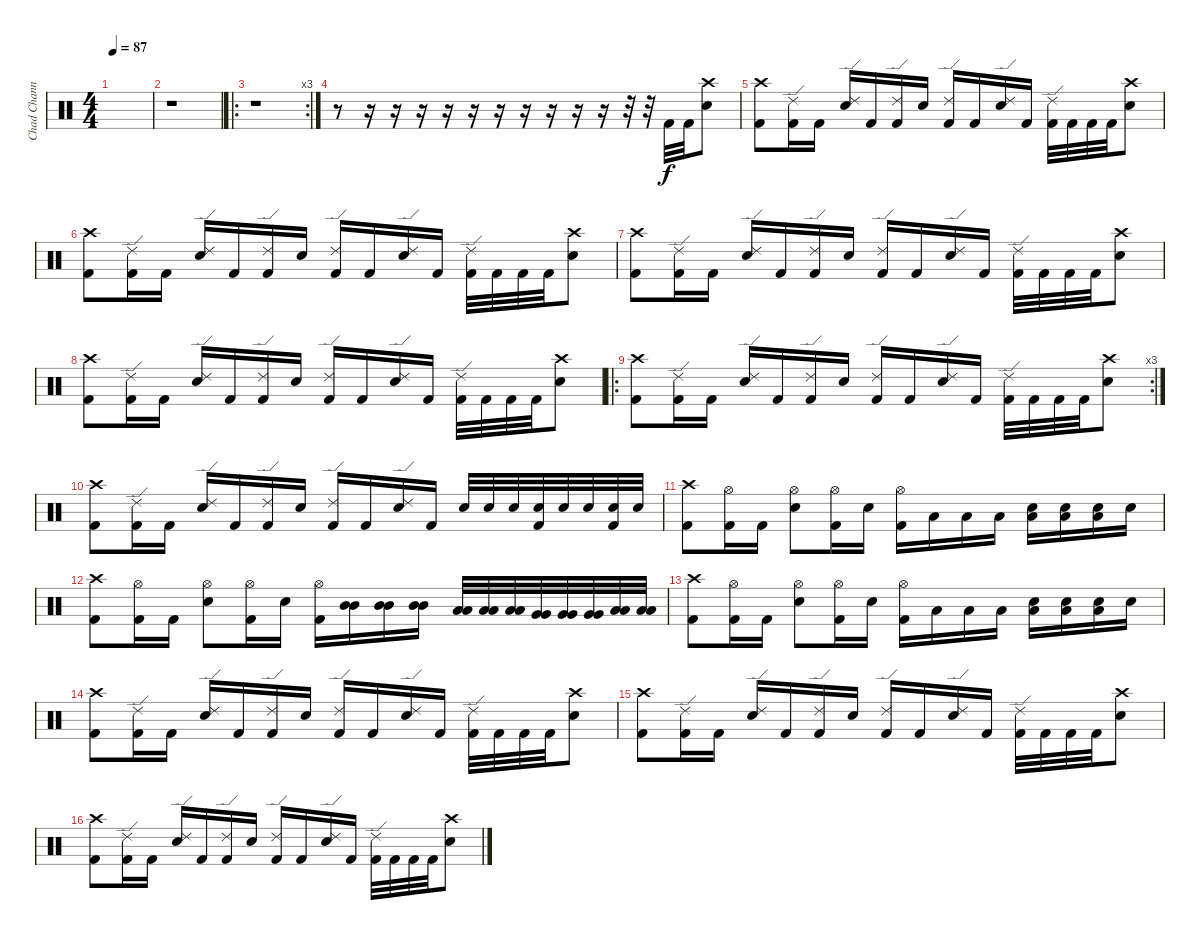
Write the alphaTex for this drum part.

\track ("Chad Channing" "Chad Chann") {instrument percussion}
\staff {score}
\articulation defaults
\ts (4 4)
\tempo 87
\clef neutral
\ks c
|
r.1 |
\ro
\rc 3
r.1 |
r.8 r.16 r.16 r.16 r.16 r.16 r.16 r.16 r.16 r.16 r.16 r.32 r.32 "Kick (hit) 2".32 "Kick (hit) 2".32 ("Crash high (hit)" "Snare (hit) 2").8 |
("Crash high (hit)" "Kick (hit) 2").8 ("Ride (edge) 2" "Kick (hit) 2").16 "Kick (hit) 2".16 ("Ride (edge) 2" "Snare (hit) 2").16 "Kick (hit) 2".16 ("Ride (edge) 2" "Kick (hit) 2").16 "Snare (hit) 2".16 ("Ride (edge) 2" "Kick (hit) 2").16 "Kick (hit) 2".16 ("Ride (edge) 2" "Snare (hit) 2").16 "Kick (hit) 2".16 ("Ride (edge) 2" "Kick (hit) 2").32 "Kick (hit) 2".32 "Kick (hit) 2".32 "Kick (hit) 2".32 ("Crash high (hit)" "Snare (hit) 2").8 |
("Crash high (hit)" "Kick (hit) 2").8 ("Ride (edge) 2" "Kick (hit) 2").16 "Kick (hit) 2".16 ("Ride (edge) 2" "Snare (hit) 2").16 "Kick (hit) 2".16 ("Ride (edge) 2" "Kick (hit) 2").16 "Snare (hit) 2".16 ("Ride (edge) 2" "Kick (hit) 2").16 "Kick (hit) 2".16 ("Ride (edge) 2" "Snare (hit) 2").16 "Kick (hit) 2".16 ("Ride (edge) 2" "Kick (hit) 2").32 "Kick (hit) 2".32 "Kick (hit) 2".32 "Kick (hit) 2".32 ("Crash high (hit)" "Snare (hit) 2").8 |
("Crash high (hit)" "Kick (hit) 2").8 ("Ride (edge) 2" "Kick (hit) 2").16 "Kick (hit) 2".16 ("Ride (edge) 2" "Snare (hit) 2").16 "Kick (hit) 2".16 ("Ride (edge) 2" "Kick (hit) 2").16 "Snare (hit) 2".16 ("Ride (edge) 2" "Kick (hit) 2").16 "Kick (hit) 2".16 ("Ride (edge) 2" "Snare (hit) 2").16 "Kick (hit) 2".16 ("Ride (edge) 2" "Kick (hit) 2").32 "Kick (hit) 2".32 "Kick (hit) 2".32 "Kick (hit) 2".32 ("Crash high (hit)" "Snare (hit) 2").8 |
("Crash high (hit)" "Kick (hit) 2").8 ("Ride (edge) 2" "Kick (hit) 2").16 "Kick (hit) 2".16 ("Ride (edge) 2" "Snare (hit) 2").16 "Kick (hit) 2".16 ("Ride (edge) 2" "Kick (hit) 2").16 "Snare (hit) 2".16 ("Ride (edge) 2" "Kick (hit) 2").16 "Kick (hit) 2".16 ("Ride (edge) 2" "Snare (hit) 2").16 "Kick (hit) 2".16 ("Ride (edge) 2" "Kick (hit) 2").32 "Kick (hit) 2".32 "Kick (hit) 2".32 "Kick (hit) 2".32 ("Crash high (hit)" "Snare (hit) 2").8 |
\ro
\rc 3
("Crash high (hit)" "Kick (hit) 2").8 ("Ride (edge) 2" "Kick (hit) 2").16 "Kick (hit) 2".16 ("Ride (edge) 2" "Snare (hit) 2").16 "Kick (hit) 2".16 ("Ride (edge) 2" "Kick (hit) 2").16 "Snare (hit) 2".16 ("Ride (edge) 2" "Kick (hit) 2").16 "Kick (hit) 2".16 ("Ride (edge) 2" "Snare (hit) 2").16 "Kick (hit) 2".16 ("Ride (edge) 2" "Kick (hit) 2").32 "Kick (hit) 2".32 "Kick (hit) 2".32 "Kick (hit) 2".32 ("Crash high (hit)" "Snare (hit) 2").8 |
("Crash high (hit)" "Kick (hit) 2").8 ("Ride (edge) 2" "Kick (hit) 2").16 "Kick (hit) 2".16 ("Ride (edge) 2" "Snare (hit) 2").16 "Kick (hit) 2".16 ("Ride (edge) 2" "Kick (hit) 2").16 "Snare (hit) 2".16 ("Ride (edge) 2" "Kick (hit) 2").16 "Kick (hit) 2".16 ("Ride (edge) 2" "Snare (hit) 2").16 "Kick (hit) 2".16 "Snare (hit) 2".32 "Snare (hit) 2".32 "Snare (hit) 2".32 ("Snare (hit) 2" "Kick (hit) 2").32 "Snare (hit) 2".32 "Snare (hit) 2".32 ("Snare (hit) 2" "Kick (hit) 2").32 "Snare (hit) 2".32 |
("Crash high (hit)" "Kick (hit) 2").8 ("Hi-Hat (open)" "Kick (hit) 2").16 "Kick (hit) 2".16 ("Hi-Hat (open)" "Snare (hit) 2").8 ("Hi-Hat (open)" "Kick (hit) 2").16 "Snare (hit) 2".16 ("Hi-Hat (open)" "Kick (hit) 2").16 "Low Tom (hit)".16 "Low Tom (hit)".16 "Low Tom (hit)".16 ("Snare (hit) 2" "Low Tom (hit)").16 ("Snare (hit) 2" "Low Tom (hit)").16 ("Snare (hit) 2" "Low Tom (hit)").16 "Snare (hit) 2".16 |
("Crash high (hit)" "Kick (hit) 2").8 ("Hi-Hat (open)" "Kick (hit) 2").16 "Kick (hit) 2".16 ("Hi-Hat (open)" "Snare (hit) 2").8 ("Hi-Hat (open)" "Kick (hit) 2").16 "Snare (hit) 2".16 ("Hi-Hat (open)" "Kick (hit) 2").16 ("Mid Tom (hit)" "Mid Tom (hit)").16 ("Mid Tom (hit)" "Mid Tom (hit)").16 ("Mid Tom (hit)" "Mid Tom (hit)").16 ("Low Tom (hit)" "Low Tom (hit)").32 ("Low Tom (hit)" "Low Tom (hit)").32 ("Low Tom (hit)" "Low Tom (hit)").32 ("Very Low Tom (hit)" "Very Low Tom (hit)").32 ("Very Low Tom (hit)" "Very Low Tom (hit)").32 ("Very Low Tom (hit)" "Very Low Tom (hit)").32 ("Low Floor Tom (hit)" "Low Floor Tom (hit)").32 ("Low Floor Tom (hit)" "Low Floor Tom (hit)").32 |
("Crash high (hit)" "Kick (hit) 2").8 ("Hi-Hat (open)" "Kick (hit) 2").16 "Kick (hit) 2".16 ("Hi-Hat (open)" "Snare (hit) 2").8 ("Hi-Hat (open)" "Kick (hit) 2").16 "Snare (hit) 2".16 ("Hi-Hat (open)" "Kick (hit) 2").16 "Low Tom (hit)".16 "Low Tom (hit)".16 "Low Tom (hit)".16 ("Snare (hit) 2" "Low Tom (hit)").16 ("Snare (hit) 2" "Low Tom (hit)").16 ("Snare (hit) 2" "Low Tom (hit)").16 "Snare (hit) 2".16 |
("Crash high (hit)" "Kick (hit) 2").8 ("Ride (edge) 2" "Kick (hit) 2").16 "Kick (hit) 2".16 ("Ride (edge) 2" "Snare (hit) 2").16 "Kick (hit) 2".16 ("Ride (edge) 2" "Kick (hit) 2").16 "Snare (hit) 2".16 ("Ride (edge) 2" "Kick (hit) 2").16 "Kick (hit) 2".16 ("Ride (edge) 2" "Snare (hit) 2").16 "Kick (hit) 2".16 ("Ride (edge) 2" "Kick (hit) 2").32 "Kick (hit) 2".32 "Kick (hit) 2".32 "Kick (hit) 2".32 ("Crash high (hit)" "Snare (hit) 2").8 |
("Crash high (hit)" "Kick (hit) 2").8 ("Ride (edge) 2" "Kick (hit) 2").16 "Kick (hit) 2".16 ("Ride (edge) 2" "Snare (hit) 2").16 "Kick (hit) 2".16 ("Ride (edge) 2" "Kick (hit) 2").16 "Snare (hit) 2".16 ("Ride (edge) 2" "Kick (hit) 2").16 "Kick (hit) 2".16 ("Ride (edge) 2" "Snare (hit) 2").16 "Kick (hit) 2".16 ("Ride (edge) 2" "Kick (hit) 2").32 "Kick (hit) 2".32 "Kick (hit) 2".32 "Kick (hit) 2".32 ("Crash high (hit)" "Snare (hit) 2").8 |
("Crash high (hit)" "Kick (hit) 2").8 ("Ride (edge) 2" "Kick (hit) 2").16 "Kick (hit) 2".16 ("Ride (edge) 2" "Snare (hit) 2").16 "Kick (hit) 2".16 ("Ride (edge) 2" "Kick (hit) 2").16 "Snare (hit) 2".16 ("Ride (edge) 2" "Kick (hit) 2").16 "Kick (hit) 2".16 ("Ride (edge) 2" "Snare (hit) 2").16 "Kick (hit) 2".16 ("Ride (edge) 2" "Kick (hit) 2").32 "Kick (hit) 2".32 "Kick (hit) 2".32 "Kick (hit) 2".32 ("Crash high (hit)" "Snare (hit) 2").8
